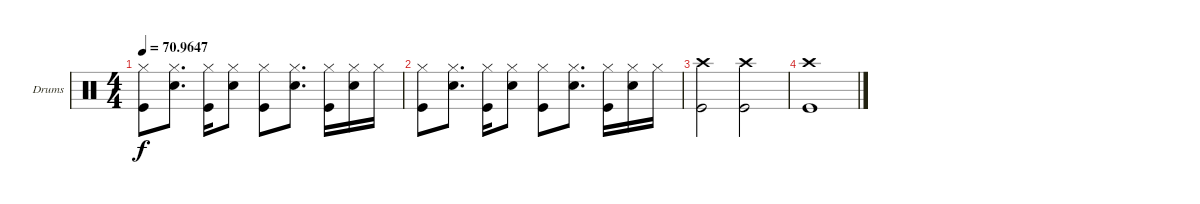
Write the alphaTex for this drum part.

\bracketExtendMode groupsimilarinstruments
\firstSystemTrackNameOrientation horizontal
\otherSystemsTrackNameOrientation horizontal
\track ("Drumkit" "Drums") {instrument percussion}
\staff {score}
\articulation defaults
\ts (4 4)
\tempo
70.9647
\accidentals auto
\clef neutral
\ottava regular
\simile none
\scale
0.333333
\ks c
("Kick (hit)" "Hi-Hat (closed)").8{dy f} ("Snare (hit) 2" "Hi-Hat (closed)").8{d} ("Kick (hit)" "Hi-Hat (closed)").16 ("Snare (hit) 2" "Hi-Hat (closed)").8 ("Kick (hit)" "Hi-Hat (closed)").8 ("Snare (hit) 2" "Hi-Hat (closed)").8{d} ("Kick (hit)" "Hi-Hat (closed)").16 ("Snare (hit) 2" "Hi-Hat (closed)").16 "Hi-Hat (closed)".16 |
\scale
0.333333 ("Kick (hit)" "Hi-Hat (closed)").8 ("Snare (hit) 2" "Hi-Hat (closed)").8{d} ("Kick (hit)" "Hi-Hat (closed)").16 ("Snare (hit) 2" "Hi-Hat (closed)").8 ("Kick (hit)" "Hi-Hat (closed)").8 ("Snare (hit) 2" "Hi-Hat (closed)").8{d} ("Kick (hit)" "Hi-Hat (closed)").16 ("Snare (hit) 2" "Hi-Hat (closed)").16 "Hi-Hat (closed)".16 |
\scale
0.333333 ("Kick (hit)" "Crash high (hit)").2 ("Kick (hit)" "Crash high (hit)").2 |
\scale
0.333333 ("Kick (hit)" "Crash high (hit)").1 |
\scale
0.333333 |
\scale
0.333333 |
\scale
0.333333
